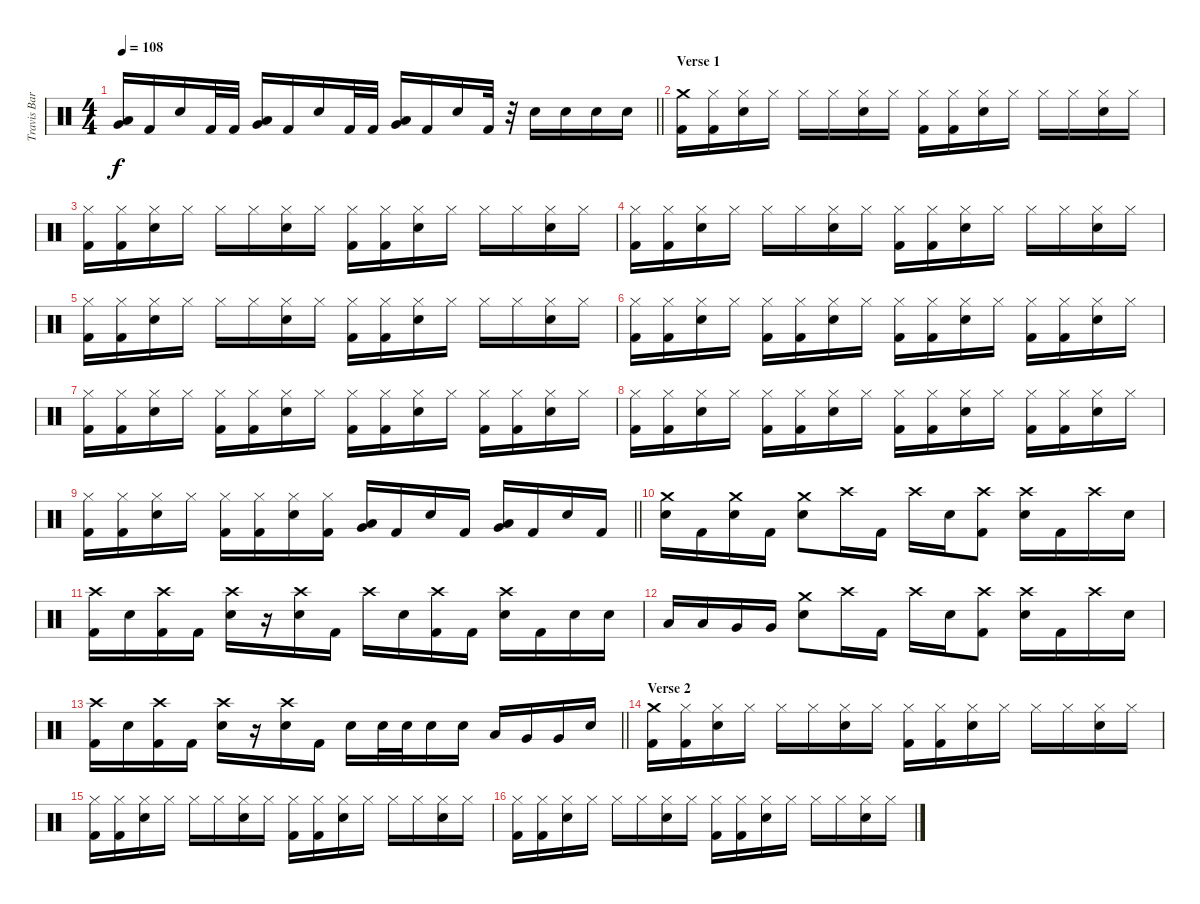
\track ("Travis Barker" "Travis Bar") {instrument percussion}
\staff {score}
\articulation defaults
\ts (4 4)
\tempo 108
\clef neutral
\barLineRight lightlight
\ks c
("Low Tom (hit)" "Very Low Tom (hit)").16{dy f} "Kick (hit) 2".16 "Electric Snare (hit)".16 "Kick (hit) 2".32 "Kick (hit) 2".32 ("Low Tom (hit)" "Very Low Tom (hit)").16 "Kick (hit) 2".16 "Electric Snare (hit)".16 "Kick (hit) 2".32 "Kick (hit) 2".32 ("Low Tom (hit)" "Very Low Tom (hit)").16 "Kick (hit) 2".16 "Electric Snare (hit)".16 "Kick (hit) 2".32 r.32 "Electric Snare (hit)".16 "Electric Snare (hit)".16 "Electric Snare (hit)".16 "Electric Snare (hit)".16 |
\section ("" "Verse 1")
("Crash medium (hit)" "Kick (hit) 2").16 ("Hi-Hat (closed)" "Kick (hit) 2").16 ("Hi-Hat (closed)" "Electric Snare (hit)").16 "Hi-Hat (closed)".16 "Hi-Hat (closed)".16 "Hi-Hat (closed)".16 ("Hi-Hat (closed)" "Electric Snare (hit)").16 "Hi-Hat (closed)".16 ("Hi-Hat (closed)" "Kick (hit) 2").16 ("Hi-Hat (closed)" "Kick (hit) 2").16 ("Hi-Hat (closed)" "Electric Snare (hit)").16 "Hi-Hat (closed)".16 "Hi-Hat (closed)".16 "Hi-Hat (closed)".16 ("Hi-Hat (closed)" "Electric Snare (hit)").16 "Hi-Hat (closed)".16 |
("Hi-Hat (closed)" "Kick (hit) 2").16 ("Hi-Hat (closed)" "Kick (hit) 2").16 ("Hi-Hat (closed)" "Electric Snare (hit)").16 "Hi-Hat (closed)".16 "Hi-Hat (closed)".16 "Hi-Hat (closed)".16 ("Hi-Hat (closed)" "Electric Snare (hit)").16 "Hi-Hat (closed)".16 ("Hi-Hat (closed)" "Kick (hit) 2").16 ("Hi-Hat (closed)" "Kick (hit) 2").16 ("Hi-Hat (closed)" "Electric Snare (hit)").16 "Hi-Hat (closed)".16 "Hi-Hat (closed)".16 "Hi-Hat (closed)".16 ("Hi-Hat (closed)" "Electric Snare (hit)").16 "Hi-Hat (closed)".16 |
("Hi-Hat (closed)" "Kick (hit) 2").16 ("Hi-Hat (closed)" "Kick (hit) 2").16 ("Hi-Hat (closed)" "Electric Snare (hit)").16 "Hi-Hat (closed)".16 "Hi-Hat (closed)".16 "Hi-Hat (closed)".16 ("Hi-Hat (closed)" "Electric Snare (hit)").16 "Hi-Hat (closed)".16 ("Hi-Hat (closed)" "Kick (hit) 2").16 ("Hi-Hat (closed)" "Kick (hit) 2").16 ("Hi-Hat (closed)" "Electric Snare (hit)").16 "Hi-Hat (closed)".16 "Hi-Hat (closed)".16 "Hi-Hat (closed)".16 ("Hi-Hat (closed)" "Electric Snare (hit)").16 "Hi-Hat (closed)".16 |
("Hi-Hat (closed)" "Kick (hit) 2").16 ("Hi-Hat (closed)" "Kick (hit) 2").16 ("Hi-Hat (closed)" "Electric Snare (hit)").16 "Hi-Hat (closed)".16 "Hi-Hat (closed)".16 "Hi-Hat (closed)".16 ("Hi-Hat (closed)" "Electric Snare (hit)").16 "Hi-Hat (closed)".16 ("Hi-Hat (closed)" "Kick (hit) 2").16 ("Hi-Hat (closed)" "Kick (hit) 2").16 ("Hi-Hat (closed)" "Electric Snare (hit)").16 "Hi-Hat (closed)".16 "Hi-Hat (closed)".16 "Hi-Hat (closed)".16 ("Hi-Hat (closed)" "Electric Snare (hit)").16 "Hi-Hat (closed)".16 |
("Hi-Hat (closed)" "Kick (hit) 2").16 ("Hi-Hat (closed)" "Kick (hit) 2").16 ("Hi-Hat (closed)" "Electric Snare (hit)").16 "Hi-Hat (closed)".16 ("Hi-Hat (closed)" "Kick (hit) 2").16 ("Hi-Hat (closed)" "Kick (hit) 2").16 ("Hi-Hat (closed)" "Electric Snare (hit)").16 "Hi-Hat (closed)".16 ("Hi-Hat (closed)" "Kick (hit) 2").16 ("Hi-Hat (closed)" "Kick (hit) 2").16 ("Hi-Hat (closed)" "Electric Snare (hit)").16 "Hi-Hat (closed)".16 ("Hi-Hat (closed)" "Kick (hit) 2").16 ("Hi-Hat (closed)" "Kick (hit) 2").16 ("Hi-Hat (closed)" "Electric Snare (hit)").16 "Hi-Hat (closed)".16 |
("Hi-Hat (closed)" "Kick (hit) 2").16 ("Hi-Hat (closed)" "Kick (hit) 2").16 ("Hi-Hat (closed)" "Electric Snare (hit)").16 "Hi-Hat (closed)".16 ("Hi-Hat (closed)" "Kick (hit) 2").16 ("Hi-Hat (closed)" "Kick (hit) 2").16 ("Hi-Hat (closed)" "Electric Snare (hit)").16 "Hi-Hat (closed)".16 ("Hi-Hat (closed)" "Kick (hit) 2").16 ("Hi-Hat (closed)" "Kick (hit) 2").16 ("Hi-Hat (closed)" "Electric Snare (hit)").16 "Hi-Hat (closed)".16 ("Hi-Hat (closed)" "Kick (hit) 2").16 ("Hi-Hat (closed)" "Kick (hit) 2").16 ("Hi-Hat (closed)" "Electric Snare (hit)").16 "Hi-Hat (closed)".16 |
("Hi-Hat (closed)" "Kick (hit) 2").16 ("Hi-Hat (closed)" "Kick (hit) 2").16 ("Hi-Hat (closed)" "Electric Snare (hit)").16 "Hi-Hat (closed)".16 ("Hi-Hat (closed)" "Kick (hit) 2").16 ("Hi-Hat (closed)" "Kick (hit) 2").16 ("Hi-Hat (closed)" "Electric Snare (hit)").16 "Hi-Hat (closed)".16 ("Hi-Hat (closed)" "Kick (hit) 2").16 ("Hi-Hat (closed)" "Kick (hit) 2").16 ("Hi-Hat (closed)" "Electric Snare (hit)").16 "Hi-Hat (closed)".16 ("Hi-Hat (closed)" "Kick (hit) 2").16 ("Hi-Hat (closed)" "Kick (hit) 2").16 ("Hi-Hat (closed)" "Electric Snare (hit)").16 "Hi-Hat (closed)".16 |
\barLineRight lightlight
("Hi-Hat (closed)" "Kick (hit) 2").16 ("Hi-Hat (closed)" "Kick (hit) 2").16 ("Hi-Hat (closed)" "Electric Snare (hit)").16 "Hi-Hat (closed)".16 ("Hi-Hat (closed)" "Kick (hit) 2").16 ("Hi-Hat (closed)" "Kick (hit) 2").16 ("Hi-Hat (closed)" "Electric Snare (hit)").16 ("Hi-Hat (closed)" "Kick (hit) 2").16 ("Low Tom (hit)" "Very Low Tom (hit)").16 "Kick (hit) 2".16 "Electric Snare (hit)".16 "Kick (hit) 2".16 ("Low Tom (hit)" "Very Low Tom (hit)").16 "Kick (hit) 2".16 "Electric Snare (hit)".16 "Kick (hit) 2".16 |
\section ("" "")
("Crash medium (hit)" "Electric Snare (hit)").16 "Kick (hit) 2".16 ("Crash medium (hit)" "Electric Snare (hit)").16 "Kick (hit) 2".16 ("Crash medium (hit)" "Electric Snare (hit)").8 "Crash high (hit)".16 "Kick (hit) 2".16 "Crash high (hit)".16 "Electric Snare (hit)".16 ("Crash high (hit)" "Kick (hit) 2").8 ("Crash high (hit)" "Electric Snare (hit)").16 "Kick (hit) 2".16 "Crash high (hit)".16 "Electric Snare (hit)".16 |
("Crash high (hit)" "Kick (hit) 2").16 "Electric Snare (hit)".16 ("Crash high (hit)" "Kick (hit) 2").16 "Kick (hit) 2".16 ("Crash high (hit)" "Electric Snare (hit)").16 r.16 ("Crash high (hit)" "Electric Snare (hit)").16 "Kick (hit) 2".16 "Crash high (hit)".16 "Electric Snare (hit)".16 ("Crash high (hit)" "Kick (hit) 2").16 "Kick (hit) 2".16 ("Crash high (hit)" "Electric Snare (hit)").16 "Kick (hit) 2".16 "Electric Snare (hit)".16 "Electric Snare (hit)".16 |
"Low Tom (hit)".16 "Low Tom (hit)".16 "Very Low Tom (hit)".16 "Very Low Tom (hit)".16 ("Crash medium (hit)" "Electric Snare (hit)").8 "Crash high (hit)".16 "Kick (hit) 2".16 "Crash high (hit)".16 "Electric Snare (hit)".16 ("Crash high (hit)" "Kick (hit) 2").8 ("Crash high (hit)" "Electric Snare (hit)").16 "Kick (hit) 2".16 "Crash high (hit)".16 "Electric Snare (hit)".16 |
\barLineRight lightlight
("Crash high (hit)" "Kick (hit) 2").16 "Electric Snare (hit)".16 ("Crash high (hit)" "Kick (hit) 2").16 "Kick (hit) 2".16 ("Crash high (hit)" "Electric Snare (hit)").16 r.16 ("Crash high (hit)" "Electric Snare (hit)").16 "Kick (hit) 2".16 "Electric Snare (hit)".16 "Electric Snare (hit)".32 "Electric Snare (hit)".32 "Electric Snare (hit)".16 "Electric Snare (hit)".16 "Low Tom (hit)".16 "Very Low Tom (hit)".16 "Very Low Tom (hit)".16 "Electric Snare (hit)".16 |
\section ("" "Verse 2")
("Crash medium (hit)" "Kick (hit) 2").16 ("Hi-Hat (closed)" "Kick (hit) 2").16 ("Hi-Hat (closed)" "Electric Snare (hit)").16 "Hi-Hat (closed)".16 "Hi-Hat (closed)".16 "Hi-Hat (closed)".16 ("Hi-Hat (closed)" "Electric Snare (hit)").16 "Hi-Hat (closed)".16 ("Hi-Hat (closed)" "Kick (hit) 2").16 ("Hi-Hat (closed)" "Kick (hit) 2").16 ("Hi-Hat (closed)" "Electric Snare (hit)").16 "Hi-Hat (closed)".16 "Hi-Hat (closed)".16 "Hi-Hat (closed)".16 ("Hi-Hat (closed)" "Electric Snare (hit)").16 "Hi-Hat (closed)".16 |
("Hi-Hat (closed)" "Kick (hit) 2").16 ("Hi-Hat (closed)" "Kick (hit) 2").16 ("Hi-Hat (closed)" "Electric Snare (hit)").16 "Hi-Hat (closed)".16 "Hi-Hat (closed)".16 "Hi-Hat (closed)".16 ("Hi-Hat (closed)" "Electric Snare (hit)").16 "Hi-Hat (closed)".16 ("Hi-Hat (closed)" "Kick (hit) 2").16 ("Hi-Hat (closed)" "Kick (hit) 2").16 ("Hi-Hat (closed)" "Electric Snare (hit)").16 "Hi-Hat (closed)".16 "Hi-Hat (closed)".16 "Hi-Hat (closed)".16 ("Hi-Hat (closed)" "Electric Snare (hit)").16 "Hi-Hat (closed)".16 |
("Hi-Hat (closed)" "Kick (hit) 2").16 ("Hi-Hat (closed)" "Kick (hit) 2").16 ("Hi-Hat (closed)" "Electric Snare (hit)").16 "Hi-Hat (closed)".16 "Hi-Hat (closed)".16 "Hi-Hat (closed)".16 ("Hi-Hat (closed)" "Electric Snare (hit)").16 "Hi-Hat (closed)".16 ("Hi-Hat (closed)" "Kick (hit) 2").16 ("Hi-Hat (closed)" "Kick (hit) 2").16 ("Hi-Hat (closed)" "Electric Snare (hit)").16 "Hi-Hat (closed)".16 "Hi-Hat (closed)".16 "Hi-Hat (closed)".16 ("Hi-Hat (closed)" "Electric Snare (hit)").16 "Hi-Hat (closed)".16
